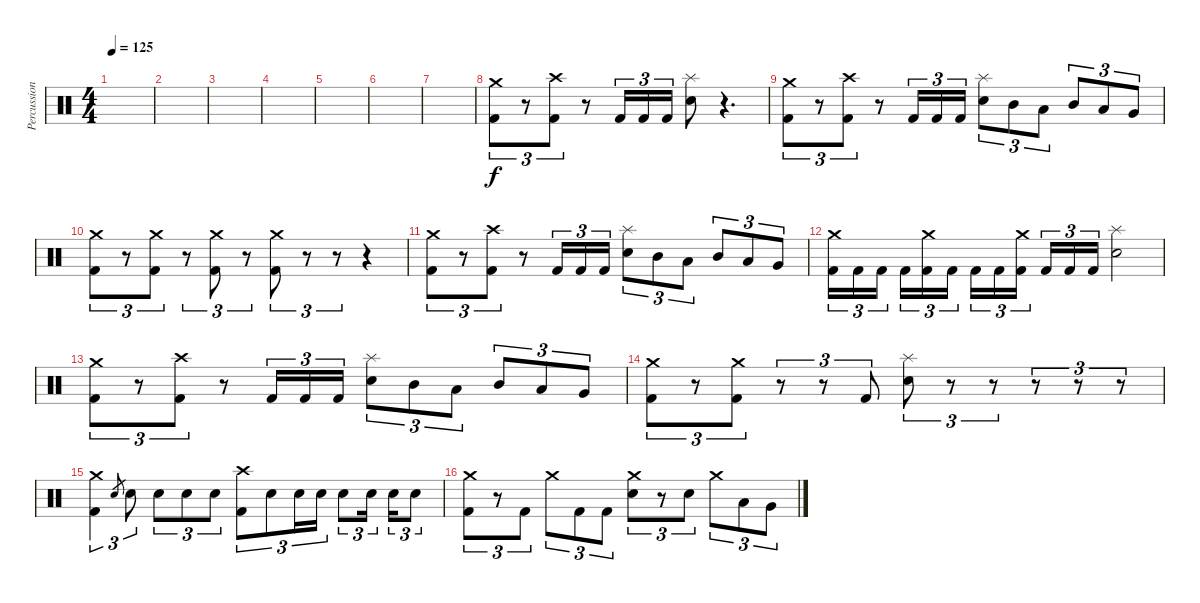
\track ("Percussion" "Percussion") {instrument percussion}
\staff {score}
\articulation defaults
\ts (4 4)
\tempo 125
\clef neutral
\ks c
|
|
|
|
|
|
|
("Crash medium (hit)" "Kick (hit) 2").8{tu (3 2)} r.8{tu (3 2)} ("Crash high (hit)" "Kick (hit) 2").8{tu (3 2)} r.8 "Kick (hit) 2".16{tu (3 2)} "Kick (hit) 2".16{tu (3 2)} "Kick (hit) 2".16{tu (3 2)} ("Splash (hit)" "Electric Snare (hit)").8 r.4{d} |
("Crash medium (hit)" "Kick (hit) 2").8{tu (3 2)} r.8{tu (3 2)} ("Crash high (hit)" "Kick (hit) 2").8{tu (3 2)} r.8 "Kick (hit) 2".16{tu (3 2)} "Kick (hit) 2".16{tu (3 2)} "Kick (hit) 2".16{tu (3 2)} ("Splash (hit)" "Electric Snare (hit)").8{tu (3 2)} "Mid Tom (hit)".8{tu (3 2)} "Low Tom (hit)".8{tu (3 2)} "Mid Tom (hit)".8{tu (3 2)} "Low Tom (hit)".8{tu (3 2)} "Very Low Tom (hit)".8{tu (3 2)} |
("Crash medium (hit)" "Kick (hit) 2").8{tu (3 2)} r.8{tu (3 2)} ("Crash medium (hit)" "Kick (hit) 2").8{tu (3 2)} r.8{tu (3 2)} ("Crash medium (hit)" "Kick (hit) 2").8{tu (3 2)} r.8{tu (3 2)} ("Crash medium (hit)" "Kick (hit) 2").8{tu (3 2)} r.8{tu (3 2)} r.8{tu (3 2)} r.4 |
("Crash medium (hit)" "Kick (hit) 2").8{tu (3 2)} r.8{tu (3 2)} ("Crash high (hit)" "Kick (hit) 2").8{tu (3 2)} r.8 "Kick (hit) 2".16{tu (3 2)} "Kick (hit) 2".16{tu (3 2)} "Kick (hit) 2".16{tu (3 2)} ("Splash (hit)" "Electric Snare (hit)").8{tu (3 2)} "Mid Tom (hit)".8{tu (3 2)} "Low Tom (hit)".8{tu (3 2)} "Mid Tom (hit)".8{tu (3 2)} "Low Tom (hit)".8{tu (3 2)} "Very Low Tom (hit)".8{tu (3 2)} |
("Crash medium (hit)" "Kick (hit) 2").16{tu (3 2)} "Kick (hit) 2".16{tu (3 2)} "Kick (hit) 2".16{tu (3 2)} "Kick (hit) 2".16{tu (3 2)} ("Crash medium (hit)" "Kick (hit) 2").16{tu (3 2)} "Kick (hit) 2".16{tu (3 2)} "Kick (hit) 2".16{tu (3 2)} "Kick (hit) 2".16{tu (3 2)} ("Crash medium (hit)" "Kick (hit) 2").16{tu (3 2)} "Kick (hit) 2".16{tu (3 2)} "Kick (hit) 2".16{tu (3 2)} "Kick (hit) 2".16{tu (3 2)} ("Splash (hit)" "Electric Snare (hit)").2 |
("Crash medium (hit)" "Kick (hit) 2").8{tu (3 2)} r.8{tu (3 2)} ("Crash high (hit)" "Kick (hit) 2").8{tu (3 2)} r.8 "Kick (hit) 2".16{tu (3 2)} "Kick (hit) 2".16{tu (3 2)} "Kick (hit) 2".16{tu (3 2)} ("Splash (hit)" "Electric Snare (hit)").8{tu (3 2)} "Mid Tom (hit)".8{tu (3 2)} "Low Tom (hit)".8{tu (3 2)} "Mid Tom (hit)".8{tu (3 2)} "Low Tom (hit)".8{tu (3 2)} "Very Low Tom (hit)".8{tu (3 2)} |
("Crash medium (hit)" "Kick (hit) 2").8{tu (3 2)} r.8{tu (3 2)} ("Crash medium (hit)" "Kick (hit) 2").8{tu (3 2)} r.8{tu (3 2)} r.8{tu (3 2)} "Kick (hit) 2".8{tu (3 2)} ("Splash (hit)" "Electric Snare (hit)").8{tu (3 2)} r.8{tu (3 2)} r.8{tu (3 2)} r.8{tu (3 2)} r.8{tu (3 2)} r.8{tu (3 2)} |
("Crash medium (hit)" "Kick (hit) 2").4{tu (3 2)} "Electric Snare (hit)".8{gr} "Electric Snare (hit)".8{tu (3 2)} "Electric Snare (hit)".8{tu (3 2)} "Electric Snare (hit)".8{tu (3 2)} "Electric Snare (hit)".8{tu (3 2)} ("Crash high (hit)" "Kick (hit) 2").8{tu (3 2)} "Electric Snare (hit)".8{tu (3 2)} "Electric Snare (hit)".16{tu (3 2)} "Electric Snare (hit)".16{tu (3 2)} "Electric Snare (hit)".8{tu (3 2)} "Electric Snare (hit)".16{tu (3 2)} "Electric Snare (hit)".16{tu (3 2)} "Electric Snare (hit)".8{tu (3 2)} |
("Crash medium (hit)" "Kick (hit) 2").8{tu (3 2)} r.8{tu (3 2)} "Kick (hit) 2".8{tu (3 2)} "Crash medium (hit)".8{tu (3 2)} "Kick (hit) 2".8{tu (3 2)} "Kick (hit) 2".8{tu (3 2)} ("Crash medium (hit)" "Electric Snare (hit)").8{tu (3 2)} r.8{tu (3 2)} "Electric Snare (hit)".8{tu (3 2)} "Crash medium (hit)".8{tu (3 2)} "Low Tom (hit)".8{tu (3 2)} "Very Low Tom (hit)".8{tu (3 2)}
